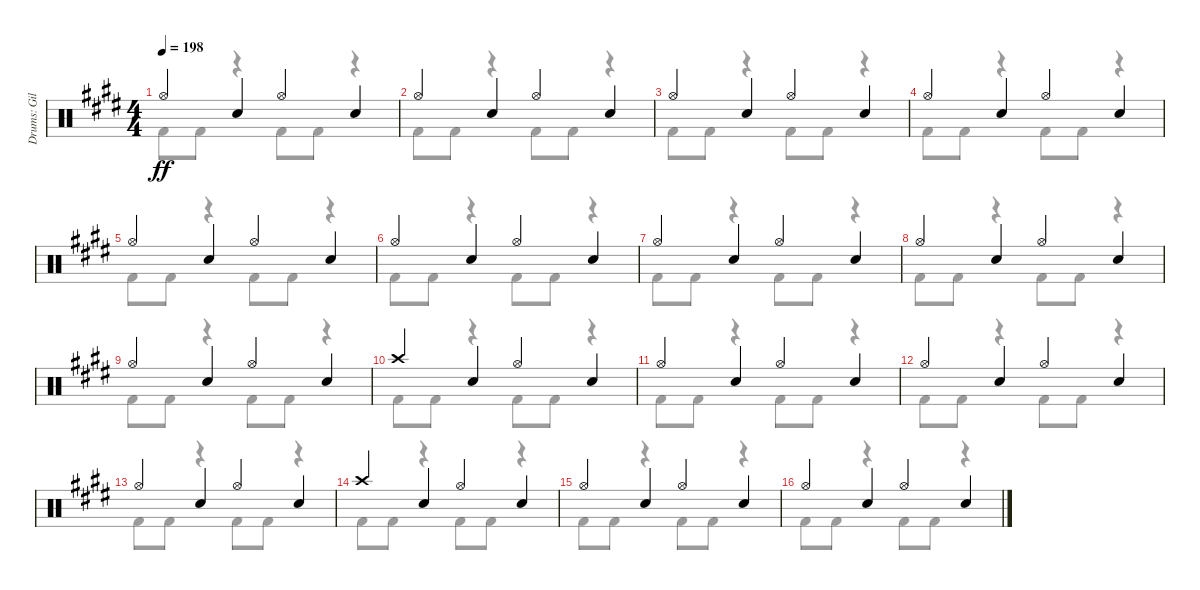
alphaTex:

\track ("Drums: Gil" "Drums: Gil") {instrument percussion}
\staff {score}
\articulation defaults
\voice
\ts (4 4)
\tempo 198
\clef neutral
\ks e "Hi-Hat (open)".4{dy ff} "Snare (hit) 2".4{beam merge} "Hi-Hat (open)".4 "Snare (hit) 2".4
|
"Hi-Hat (open)".4 "Snare (hit) 2".4{beam merge} "Hi-Hat (open)".4 "Snare (hit) 2".4 |
"Hi-Hat (open)".4 "Snare (hit) 2".4{beam merge} "Hi-Hat (open)".4 "Snare (hit) 2".4 |
"Hi-Hat (open)".4 "Snare (hit) 2".4{beam merge} "Hi-Hat (open)".4 "Snare (hit) 2".4 |
"Hi-Hat (open)".4 "Snare (hit) 2".4{beam merge} "Hi-Hat (open)".4 "Snare (hit) 2".4 |
"Hi-Hat (open)".4 "Snare (hit) 2".4{beam merge} "Hi-Hat (open)".4 "Snare (hit) 2".4 |
"Hi-Hat (open)".4 "Snare (hit) 2".4{beam merge} "Hi-Hat (open)".4 "Snare (hit) 2".4 |
"Hi-Hat (open)".4 "Snare (hit) 2".4{beam merge} "Hi-Hat (open)".4 "Snare (hit) 2".4 |
"Hi-Hat (open)".4 "Snare (hit) 2".4{beam merge} "Hi-Hat (open)".4 "Snare (hit) 2".4 |
"Crash high (hit)".4 "Snare (hit) 2".4{beam merge} "Hi-Hat (open)".4 "Snare (hit) 2".4 |
"Hi-Hat (open)".4 "Snare (hit) 2".4{beam merge} "Hi-Hat (open)".4 "Snare (hit) 2".4 |
"Hi-Hat (open)".4 "Snare (hit) 2".4{beam merge} "Hi-Hat (open)".4 "Snare (hit) 2".4 |
"Hi-Hat (open)".4 "Snare (hit) 2".4{beam merge} "Hi-Hat (open)".4 "Snare (hit) 2".4 |
"Crash high (hit)".4 "Snare (hit) 2".4{beam merge} "Hi-Hat (open)".4 "Snare (hit) 2".4 |
"Hi-Hat (open)".4 "Snare (hit) 2".4{beam merge} "Hi-Hat (open)".4 "Snare (hit) 2".4 |
"Hi-Hat (open)".4 "Snare (hit) 2".4{beam merge} "Hi-Hat (open)".4 "Snare (hit) 2".4
\voice
\clef neutral
\ottava regular
\simile none
\ks e "Kick (hit) 2".8{dy ff} "Kick (hit) 2".8
r.4 "Kick (hit) 2".8 "Kick (hit) 2".8 r.4 |
"Kick (hit) 2".8 "Kick (hit) 2".8 r.4 "Kick (hit) 2".8 "Kick (hit) 2".8 r.4 |
"Kick (hit) 2".8 "Kick (hit) 2".8 r.4 "Kick (hit) 2".8 "Kick (hit) 2".8 r.4 |
"Kick (hit) 2".8 "Kick (hit) 2".8 r.4 "Kick (hit) 2".8 "Kick (hit) 2".8 r.4 |
"Kick (hit) 2".8 "Kick (hit) 2".8 r.4 "Kick (hit) 2".8 "Kick (hit) 2".8 r.4 |
"Kick (hit) 2".8 "Kick (hit) 2".8 r.4 "Kick (hit) 2".8 "Kick (hit) 2".8 r.4 |
"Kick (hit) 2".8 "Kick (hit) 2".8 r.4 "Kick (hit) 2".8 "Kick (hit) 2".8 r.4 |
"Kick (hit) 2".8 "Kick (hit) 2".8 r.4 "Kick (hit) 2".8 "Kick (hit) 2".8 r.4 |
"Kick (hit) 2".8 "Kick (hit) 2".8 r.4 "Kick (hit) 2".8 "Kick (hit) 2".8 r.4 |
"Kick (hit) 2".8 "Kick (hit) 2".8 r.4 "Kick (hit) 2".8 "Kick (hit) 2".8 r.4 |
"Kick (hit) 2".8 "Kick (hit) 2".8 r.4 "Kick (hit) 2".8 "Kick (hit) 2".8 r.4 |
"Kick (hit) 2".8 "Kick (hit) 2".8 r.4 "Kick (hit) 2".8 "Kick (hit) 2".8 r.4 |
"Kick (hit) 2".8 "Kick (hit) 2".8 r.4 "Kick (hit) 2".8 "Kick (hit) 2".8 r.4 |
"Kick (hit) 2".8 "Kick (hit) 2".8 r.4 "Kick (hit) 2".8 "Kick (hit) 2".8 r.4 |
"Kick (hit) 2".8 "Kick (hit) 2".8 r.4 "Kick (hit) 2".8 "Kick (hit) 2".8 r.4 |
"Kick (hit) 2".8 "Kick (hit) 2".8 r.4 "Kick (hit) 2".8 "Kick (hit) 2".8 r.4
